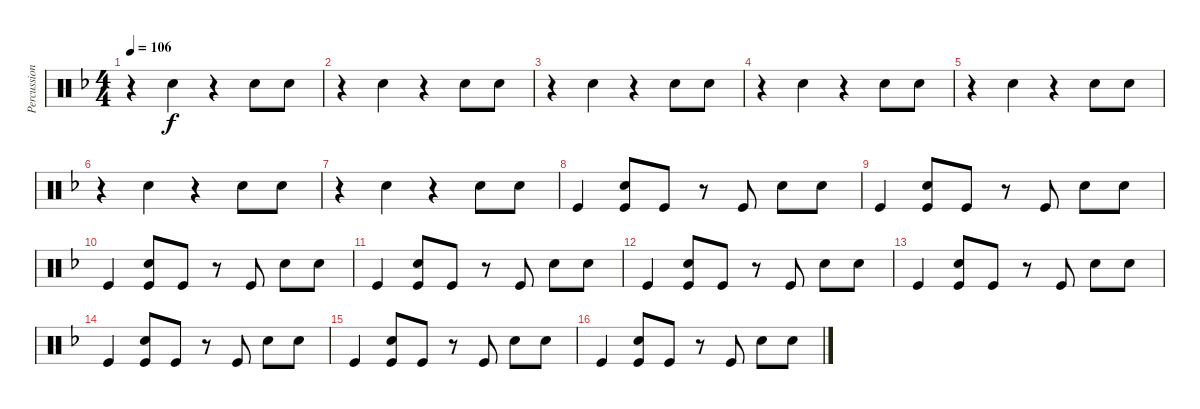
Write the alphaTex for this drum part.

\track ("Percussion" "Percussion") {instrument percussion}
\staff {score}
\articulation defaults
\ts (4 4)
\tempo 106
\clef neutral
\ks dminor
r.4{dy f} "Hand Clap (hit)".4 r.4 "Hand Clap (hit)".8 "Hand Clap (hit)".8 |
r.4 "Hand Clap (hit)".4 r.4 "Hand Clap (hit)".8 "Hand Clap (hit)".8 |
r.4 "Hand Clap (hit)".4 r.4 "Hand Clap (hit)".8 "Hand Clap (hit)".8 |
r.4 "Hand Clap (hit)".4 r.4 "Hand Clap (hit)".8 "Hand Clap (hit)".8 |
r.4 "Hand Clap (hit)".4 r.4 "Hand Clap (hit)".8 "Hand Clap (hit)".8 |
r.4 "Hand Clap (hit)".4 r.4 "Hand Clap (hit)".8 "Hand Clap (hit)".8 |
r.4 "Hand Clap (hit)".4 r.4 "Hand Clap (hit)".8 "Hand Clap (hit)".8 |
"Kick (hit)".4 ("Hand Clap (hit)" "Kick (hit)").8 "Kick (hit)".8 r.8 "Kick (hit)".8 "Hand Clap (hit)".8 "Hand Clap (hit)".8 |
"Kick (hit)".4 ("Hand Clap (hit)" "Kick (hit)").8 "Kick (hit)".8 r.8 "Kick (hit)".8 "Hand Clap (hit)".8 "Hand Clap (hit)".8 |
"Kick (hit)".4 ("Hand Clap (hit)" "Kick (hit)").8 "Kick (hit)".8 r.8 "Kick (hit)".8 "Hand Clap (hit)".8 "Hand Clap (hit)".8 |
"Kick (hit)".4 ("Hand Clap (hit)" "Kick (hit)").8 "Kick (hit)".8 r.8 "Kick (hit)".8 "Hand Clap (hit)".8 "Hand Clap (hit)".8 |
"Kick (hit)".4 ("Hand Clap (hit)" "Kick (hit)").8 "Kick (hit)".8 r.8 "Kick (hit)".8 "Hand Clap (hit)".8 "Hand Clap (hit)".8 |
"Kick (hit)".4 ("Hand Clap (hit)" "Kick (hit)").8 "Kick (hit)".8 r.8 "Kick (hit)".8 "Hand Clap (hit)".8 "Hand Clap (hit)".8 |
"Kick (hit)".4 ("Hand Clap (hit)" "Kick (hit)").8 "Kick (hit)".8 r.8 "Kick (hit)".8 "Hand Clap (hit)".8 "Hand Clap (hit)".8 |
"Kick (hit)".4 ("Hand Clap (hit)" "Kick (hit)").8 "Kick (hit)".8 r.8 "Kick (hit)".8 "Hand Clap (hit)".8 "Hand Clap (hit)".8 |
"Kick (hit)".4 ("Hand Clap (hit)" "Kick (hit)").8 "Kick (hit)".8 r.8 "Kick (hit)".8 "Hand Clap (hit)".8 "Hand Clap (hit)".8
